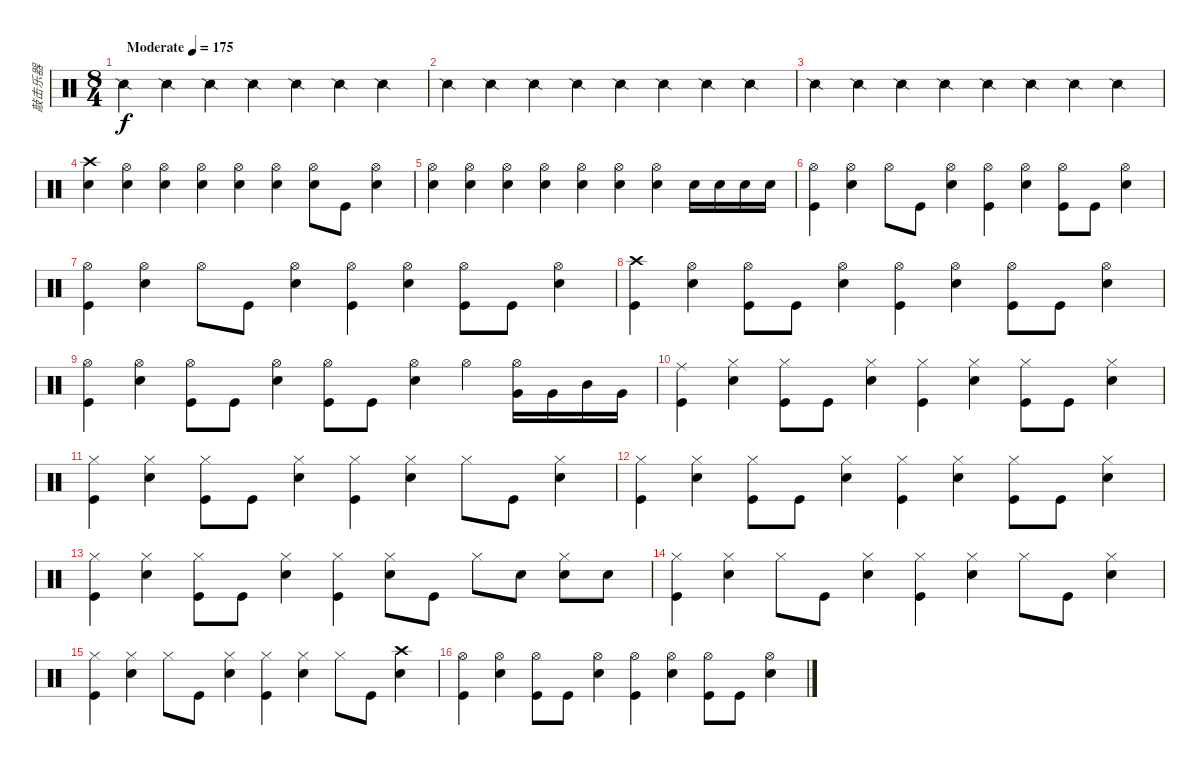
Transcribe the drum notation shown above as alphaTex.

\track ("敲击乐器" "敲击乐器") {instrument percussion}
\staff {score}
\articulation defaults
\ts (8 4)
\tempo (175 "Moderate")
\clef neutral
\ks c "Snare (side stick) 2".4{dy f} "Snare (side stick) 2".4 "Snare (side stick) 2".4 "Snare (side stick) 2".4 "Snare (side stick) 2".4 "Snare (side stick) 2".4 "Snare (side stick) 2".4
|
"Snare (side stick) 2".4 "Snare (side stick) 2".4 "Snare (side stick) 2".4 "Snare (side stick) 2".4 "Snare (side stick) 2".4 "Snare (side stick) 2".4 "Snare (side stick) 2".4 "Snare (side stick) 2".4 |
"Snare (side stick) 2".4 "Snare (side stick) 2".4 "Snare (side stick) 2".4 "Snare (side stick) 2".4 "Snare (side stick) 2".4 "Snare (side stick) 2".4 "Snare (side stick) 2".4 "Snare (side stick) 2".4 |
("Crash high (hit)" "Electric Snare (hit)").4 ("Hi-Hat (open)" "Electric Snare (hit)").4 ("Hi-Hat (open)" "Electric Snare (hit)").4 ("Hi-Hat (open)" "Electric Snare (hit)").4 ("Hi-Hat (open)" "Electric Snare (hit)").4 ("Hi-Hat (open)" "Electric Snare (hit)").4 ("Hi-Hat (open)" "Electric Snare (hit)").8 "Kick (hit)".8 ("Hi-Hat (open)" "Electric Snare (hit)").4 |
("Hi-Hat (open)" "Electric Snare (hit)").4 ("Hi-Hat (open)" "Electric Snare (hit)").4 ("Hi-Hat (open)" "Electric Snare (hit)").4 ("Hi-Hat (open)" "Electric Snare (hit)").4 ("Hi-Hat (open)" "Electric Snare (hit)").4 ("Hi-Hat (open)" "Electric Snare (hit)").4 ("Hi-Hat (open)" "Electric Snare (hit)").4 "Electric Snare (hit)".16 "Electric Snare (hit)".16 "Electric Snare (hit)".16 "Electric Snare (hit)".16 |
("Hi-Hat (open)" "Kick (hit)").4 ("Hi-Hat (open)" "Electric Snare (hit)").4 "Hi-Hat (open)".8 "Kick (hit)".8 ("Hi-Hat (open)" "Electric Snare (hit)").4 ("Hi-Hat (open)" "Kick (hit)").4 ("Hi-Hat (open)" "Electric Snare (hit)").4 ("Hi-Hat (open)" "Kick (hit)").8 "Kick (hit)".8 ("Hi-Hat (open)" "Electric Snare (hit)").4 |
("Hi-Hat (open)" "Kick (hit)").4 ("Hi-Hat (open)" "Electric Snare (hit)").4 "Hi-Hat (open)".8 "Kick (hit)".8 ("Hi-Hat (open)" "Electric Snare (hit)").4 ("Hi-Hat (open)" "Kick (hit)").4 ("Hi-Hat (open)" "Electric Snare (hit)").4 ("Hi-Hat (open)" "Kick (hit)").8 "Kick (hit)".8 ("Hi-Hat (open)" "Electric Snare (hit)").4 |
("Crash high (hit)" "Kick (hit)").4 ("Hi-Hat (open)" "Electric Snare (hit)").4 ("Hi-Hat (open)" "Kick (hit)").8 "Kick (hit)".8 ("Hi-Hat (open)" "Electric Snare (hit)").4 ("Hi-Hat (open)" "Kick (hit)").4 ("Hi-Hat (open)" "Electric Snare (hit)").4 ("Hi-Hat (open)" "Kick (hit)").8 "Kick (hit)".8 ("Hi-Hat (open)" "Electric Snare (hit)").4 |
("Hi-Hat (open)" "Kick (hit)").4 ("Hi-Hat (open)" "Electric Snare (hit)").4 ("Hi-Hat (open)" "Kick (hit)").8 "Kick (hit)".8 ("Hi-Hat (open)" "Electric Snare (hit)").4 ("Hi-Hat (open)" "Kick (hit)").8 "Kick (hit)".8 ("Hi-Hat (open)" "Electric Snare (hit)").4 "Hi-Hat (open)".4 ("Hi-Hat (open)" "Very Low Tom (hit)").16 "Very Low Tom (hit)".16 "Mid Tom (hit)".16 "Very Low Tom (hit)".16 |
("Ride (middle)" "Kick (hit)").4 ("Hi-Hat (closed)" "Electric Snare (hit)").4 ("Hi-Hat (closed)" "Kick (hit)").8 "Kick (hit)".8 ("Hi-Hat (closed)" "Electric Snare (hit)").4 ("Hi-Hat (closed)" "Kick (hit)").4 ("Hi-Hat (closed)" "Electric Snare (hit)").4 ("Hi-Hat (closed)" "Kick (hit)").8 "Kick (hit)".8 ("Hi-Hat (closed)" "Electric Snare (hit)").4 |
("Hi-Hat (closed)" "Kick (hit)").4 ("Hi-Hat (closed)" "Electric Snare (hit)").4 ("Hi-Hat (closed)" "Kick (hit)").8 "Kick (hit)".8 ("Hi-Hat (closed)" "Electric Snare (hit)").4 ("Hi-Hat (closed)" "Kick (hit)").4 ("Hi-Hat (closed)" "Electric Snare (hit)").4 "Hi-Hat (closed)".8 "Kick (hit)".8 ("Hi-Hat (closed)" "Electric Snare (hit)").4 |
("Hi-Hat (closed)" "Kick (hit)").4 ("Hi-Hat (closed)" "Electric Snare (hit)").4 ("Hi-Hat (closed)" "Kick (hit)").8 "Kick (hit)".8 ("Hi-Hat (closed)" "Electric Snare (hit)").4 ("Hi-Hat (closed)" "Kick (hit)").4 ("Hi-Hat (closed)" "Electric Snare (hit)").4 ("Hi-Hat (closed)" "Kick (hit)").8 "Kick (hit)".8 ("Hi-Hat (closed)" "Electric Snare (hit)").4 |
("Hi-Hat (closed)" "Kick (hit)").4 ("Hi-Hat (closed)" "Electric Snare (hit)").4 ("Hi-Hat (closed)" "Kick (hit)").8 "Kick (hit)".8 ("Hi-Hat (closed)" "Electric Snare (hit)").4 ("Hi-Hat (closed)" "Kick (hit)").4 ("Hi-Hat (closed)" "Electric Snare (hit)").8 "Kick (hit)".8 "Hi-Hat (closed)".8 "Electric Snare (hit)".8 ("Hi-Hat (closed)" "Electric Snare (hit)").8 "Electric Snare (hit)".8 |
("Hi-Hat (closed)" "Kick (hit)").4 ("Hi-Hat (closed)" "Electric Snare (hit)").4 "Hi-Hat (closed)".8 "Kick (hit)".8 ("Hi-Hat (closed)" "Electric Snare (hit)").4 ("Hi-Hat (closed)" "Kick (hit)").4 ("Hi-Hat (closed)" "Electric Snare (hit)").4 "Hi-Hat (closed)".8 "Kick (hit)".8 ("Hi-Hat (closed)" "Electric Snare (hit)").4 |
("Hi-Hat (closed)" "Kick (hit)").4 ("Hi-Hat (closed)" "Electric Snare (hit)").4 "Hi-Hat (closed)".8 "Kick (hit)".8 ("Hi-Hat (closed)" "Electric Snare (hit)").4 ("Hi-Hat (closed)" "Kick (hit)").4 ("Hi-Hat (closed)" "Electric Snare (hit)").4 "Hi-Hat (closed)".8 "Kick (hit)".8 ("Crash high (hit)" "Electric Snare (hit)").4 |
("Hi-Hat (open)" "Kick (hit)").4 ("Hi-Hat (open)" "Electric Snare (hit)").4 ("Hi-Hat (open)" "Kick (hit)").8 "Kick (hit)".8 ("Hi-Hat (open)" "Electric Snare (hit)").4 ("Hi-Hat (open)" "Kick (hit)").4 ("Hi-Hat (open)" "Electric Snare (hit)").4 ("Hi-Hat (open)" "Kick (hit)").8 "Kick (hit)".8 ("Hi-Hat (open)" "Electric Snare (hit)").4
